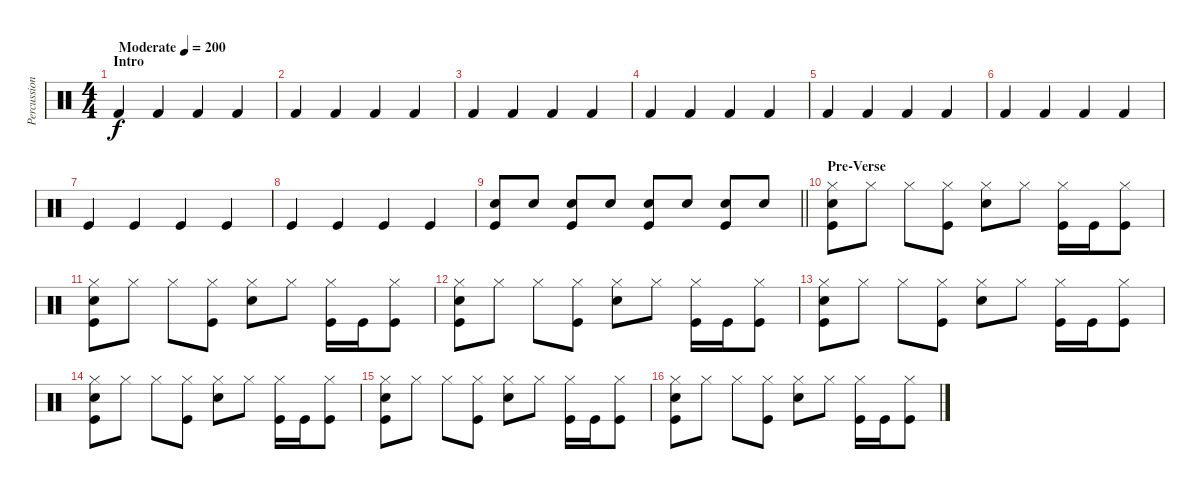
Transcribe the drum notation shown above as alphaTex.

\track ("Percussion" "Percussion") {instrument percussion}
\staff {score}
\articulation defaults
\ts (4 4)
\section ("" "Intro")
\tempo (200 "Moderate")
\clef neutral
\ks c "Kick (hit) 2".4{dy f} "Kick (hit) 2".4 "Kick (hit) 2".4 "Kick (hit) 2".4
|
"Kick (hit) 2".4 "Kick (hit) 2".4 "Kick (hit) 2".4 "Kick (hit) 2".4 |
"Kick (hit) 2".4 "Kick (hit) 2".4 "Kick (hit) 2".4 "Kick (hit) 2".4 |
"Kick (hit) 2".4 "Kick (hit) 2".4 "Kick (hit) 2".4 "Kick (hit) 2".4 |
"Kick (hit) 2".4 "Kick (hit) 2".4 "Kick (hit) 2".4 "Kick (hit) 2".4 |
"Kick (hit) 2".4 "Kick (hit) 2".4 "Kick (hit) 2".4 "Kick (hit) 2".4 |
"Kick (hit)".4 "Kick (hit)".4 "Kick (hit)".4 "Kick (hit)".4 |
"Kick (hit)".4 "Kick (hit)".4 "Kick (hit)".4 "Kick (hit)".4 |
\barLineRight lightlight
("Snare (hit) 2" "Kick (hit)").8 "Snare (hit) 2".8 ("Snare (hit) 2" "Kick (hit)").8 "Snare (hit) 2".8 ("Snare (hit) 2" "Kick (hit)").8 "Snare (hit) 2".8 ("Snare (hit) 2" "Kick (hit)").8 "Snare (hit) 2".8 |
\section ("" "Pre-Verse")
("Snare (hit) 2" "Hi-Hat (closed)" "Kick (hit)").8 "Hi-Hat (closed)".8 "Hi-Hat (closed)".8 ("Hi-Hat (closed)" "Kick (hit)").8 ("Snare (hit) 2" "Hi-Hat (closed)").8 "Hi-Hat (closed)".8 ("Hi-Hat (closed)" "Kick (hit)").16 "Kick (hit)".16 ("Hi-Hat (closed)" "Kick (hit)").8 |
("Snare (hit) 2" "Hi-Hat (closed)" "Kick (hit)").8 "Hi-Hat (closed)".8 "Hi-Hat (closed)".8 ("Hi-Hat (closed)" "Kick (hit)").8 ("Snare (hit) 2" "Hi-Hat (closed)").8 "Hi-Hat (closed)".8 ("Hi-Hat (closed)" "Kick (hit)").16 "Kick (hit)".16 ("Hi-Hat (closed)" "Kick (hit)").8 |
("Snare (hit) 2" "Hi-Hat (closed)" "Kick (hit)").8 "Hi-Hat (closed)".8 "Hi-Hat (closed)".8 ("Hi-Hat (closed)" "Kick (hit)").8 ("Snare (hit) 2" "Hi-Hat (closed)").8 "Hi-Hat (closed)".8 ("Hi-Hat (closed)" "Kick (hit)").16 "Kick (hit)".16 ("Hi-Hat (closed)" "Kick (hit)").8 |
("Snare (hit) 2" "Hi-Hat (closed)" "Kick (hit)").8 "Hi-Hat (closed)".8 "Hi-Hat (closed)".8 ("Hi-Hat (closed)" "Kick (hit)").8 ("Snare (hit) 2" "Hi-Hat (closed)").8 "Hi-Hat (closed)".8 ("Hi-Hat (closed)" "Kick (hit)").16 "Kick (hit)".16 ("Hi-Hat (closed)" "Kick (hit)").8 |
("Snare (hit) 2" "Hi-Hat (closed)" "Kick (hit)").8 "Hi-Hat (closed)".8 "Hi-Hat (closed)".8 ("Hi-Hat (closed)" "Kick (hit)").8 ("Snare (hit) 2" "Hi-Hat (closed)").8 "Hi-Hat (closed)".8 ("Hi-Hat (closed)" "Kick (hit)").16 "Kick (hit)".16 ("Hi-Hat (closed)" "Kick (hit)").8 |
("Snare (hit) 2" "Hi-Hat (closed)" "Kick (hit)").8 "Hi-Hat (closed)".8 "Hi-Hat (closed)".8 ("Hi-Hat (closed)" "Kick (hit)").8 ("Snare (hit) 2" "Hi-Hat (closed)").8 "Hi-Hat (closed)".8 ("Hi-Hat (closed)" "Kick (hit)").16 "Kick (hit)".16 ("Hi-Hat (closed)" "Kick (hit)").8 |
("Snare (hit) 2" "Hi-Hat (closed)" "Kick (hit)").8 "Hi-Hat (closed)".8 "Hi-Hat (closed)".8 ("Hi-Hat (closed)" "Kick (hit)").8 ("Snare (hit) 2" "Hi-Hat (closed)").8 "Hi-Hat (closed)".8 ("Hi-Hat (closed)" "Kick (hit)").16 "Kick (hit)".16 ("Hi-Hat (closed)" "Kick (hit)").8
